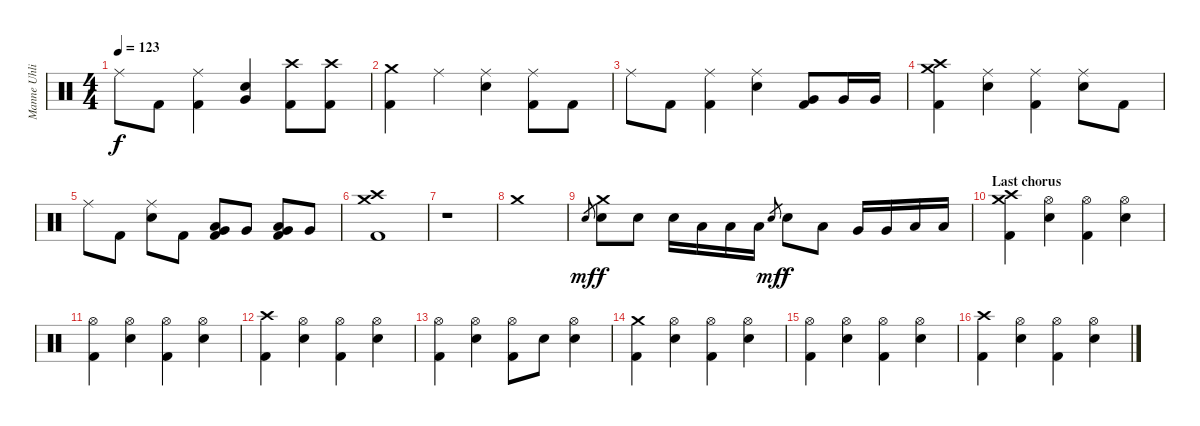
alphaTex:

\track ("Manne Uhlig" "Manne Uhli") {instrument percussion}
\staff {score}
\articulation defaults
\ts (4 4)
\tempo 123
\clef neutral
\ks c "Ride (middle)".8{dy f} "Kick (hit) 2".8
("Ride (middle)" "Kick (hit) 2").4 ("Snare (hit) 2" "Very Low Tom (hit)").4 ("Crash high (hit)" "Kick (hit) 2").8 ("Crash high (hit)" "Kick (hit) 2").8 |
("Crash medium (hit)" "Kick (hit) 2").4 "Ride (middle)".4 ("Ride (middle)" "Snare (hit) 2").4 ("Ride (middle)" "Kick (hit) 2").8 "Kick (hit) 2".8 |
"Ride (middle)".8 "Kick (hit) 2".8 ("Ride (middle)" "Kick (hit) 2").4 ("Ride (middle)" "Snare (hit) 2").4 ("Very Low Tom (hit)" "Kick (hit) 2").8 "Very Low Tom (hit)".16 "Very Low Tom (hit)".16 |
("Crash high (hit)" "Crash medium (hit)" "Kick (hit) 2").4 ("Ride (middle)" "Snare (hit) 2").4 ("Ride (middle)" "Kick (hit) 2").4 ("Ride (middle)" "Snare (hit) 2").8 "Kick (hit) 2".8 |
"Ride (middle)".8 "Kick (hit) 2".8 ("Ride (middle)" "Snare (hit) 2").8 "Kick (hit) 2".8 ("Low Tom (hit)" "Very Low Tom (hit)" "Kick (hit) 2").8 "Very Low Tom (hit)".8 ("Low Tom (hit)" "Very Low Tom (hit)" "Kick (hit) 2").8 "Very Low Tom (hit)".8 |
("Crash high (hit)" "Crash medium (hit)" "Kick (hit) 2").1 |
r.1 |
"Crash medium (hit)".1 |
"Snare (hit) 2".8{gr dy mf} ("Crash medium (hit)" "Snare (hit) 2").8{dy f} "Snare (hit) 2".8 "Snare (hit) 2".16 "Low Tom (hit)".16 "Low Tom (hit)".16 "Low Tom (hit)".16 "Snare (hit) 2".8{gr dy mf} "Snare (hit) 2".8{dy f} "Low Tom (hit)".8 "Very Low Tom (hit)".16 "Very Low Tom (hit)".16 "Low Floor Tom (hit)".16 "Low Floor Tom (hit)".16 |
\section ("" "Last chorus")
("Crash high (hit)" "Crash medium (hit)" "Kick (hit) 2").4 ("Hi-Hat (open)" "Snare (hit) 2").4 ("Hi-Hat (open)" "Kick (hit) 2").4 ("Hi-Hat (open)" "Snare (hit) 2").4 |
("Hi-Hat (open)" "Kick (hit) 2").4 ("Hi-Hat (open)" "Snare (hit) 2").4 ("Hi-Hat (open)" "Kick (hit) 2").4 ("Hi-Hat (open)" "Snare (hit) 2").4 |
("Crash high (hit)" "Kick (hit) 2").4 ("Hi-Hat (open)" "Snare (hit) 2").4 ("Hi-Hat (open)" "Kick (hit) 2").4 ("Hi-Hat (open)" "Snare (hit) 2").4 |
("Hi-Hat (open)" "Kick (hit) 2").4 ("Hi-Hat (open)" "Snare (hit) 2").4 ("Hi-Hat (open)" "Kick (hit) 2").8 "Snare (hit) 2".8 ("Hi-Hat (open)" "Snare (hit) 2").4 |
("Crash medium (hit)" "Kick (hit) 2").4 ("Hi-Hat (open)" "Snare (hit) 2").4 ("Hi-Hat (open)" "Kick (hit) 2").4 ("Hi-Hat (open)" "Snare (hit) 2").4 |
("Hi-Hat (open)" "Kick (hit) 2").4 ("Hi-Hat (open)" "Snare (hit) 2").4 ("Hi-Hat (open)" "Kick (hit) 2").4 ("Hi-Hat (open)" "Snare (hit) 2").4 |
("Crash high (hit)" "Kick (hit) 2").4 ("Hi-Hat (open)" "Snare (hit) 2").4 ("Hi-Hat (open)" "Kick (hit) 2").4 ("Hi-Hat (open)" "Snare (hit) 2").4
